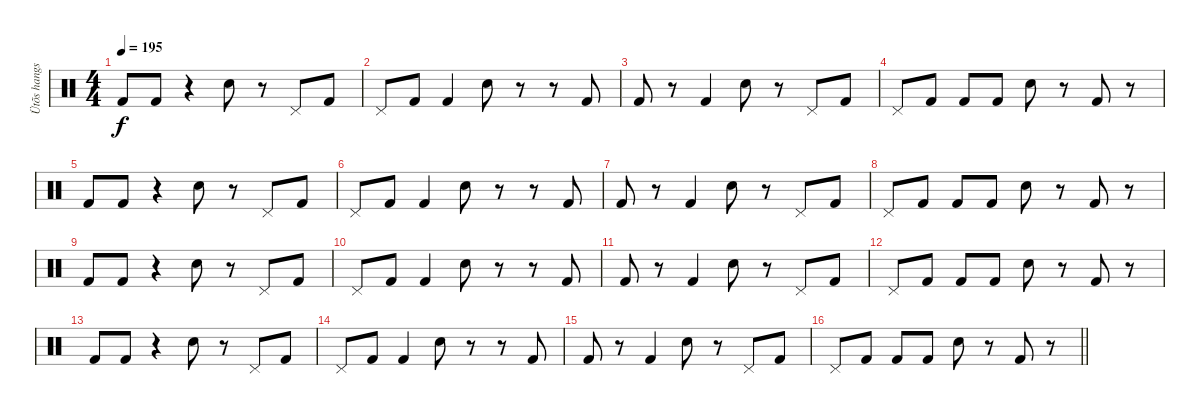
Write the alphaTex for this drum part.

\track ("Ütõs hangszer" "Ütõs hangs") {instrument percussion}
\staff {score}
\articulation defaults
\ts (4 4)
\tempo 195
\clef neutral
\ks c "Kick (hit) 2".8{dy f} "Kick (hit) 2".8
r.4 "Electric Snare (hit)".8 r.8 "Pedal Hi-Hat (hit)".8 "Kick (hit) 2".8 |
"Pedal Hi-Hat (hit)".8 "Kick (hit) 2".8 "Kick (hit) 2".4 "Electric Snare (hit)".8 r.8 r.8 "Kick (hit) 2".8 |
"Kick (hit) 2".8 r.8 "Kick (hit) 2".4 "Electric Snare (hit)".8 r.8 "Pedal Hi-Hat (hit)".8 "Kick (hit) 2".8 |
"Pedal Hi-Hat (hit)".8 "Kick (hit) 2".8 "Kick (hit) 2".8 "Kick (hit) 2".8 "Electric Snare (hit)".8 r.8 "Kick (hit) 2".8 r.8 |
"Kick (hit) 2".8 "Kick (hit) 2".8 r.4 "Electric Snare (hit)".8 r.8 "Pedal Hi-Hat (hit)".8 "Kick (hit) 2".8 |
"Pedal Hi-Hat (hit)".8 "Kick (hit) 2".8 "Kick (hit) 2".4 "Electric Snare (hit)".8 r.8 r.8 "Kick (hit) 2".8 |
"Kick (hit) 2".8 r.8 "Kick (hit) 2".4 "Electric Snare (hit)".8 r.8 "Pedal Hi-Hat (hit)".8 "Kick (hit) 2".8 |
"Pedal Hi-Hat (hit)".8 "Kick (hit) 2".8 "Kick (hit) 2".8 "Kick (hit) 2".8 "Electric Snare (hit)".8 r.8 "Kick (hit) 2".8 r.8 |
"Kick (hit) 2".8 "Kick (hit) 2".8 r.4 "Electric Snare (hit)".8 r.8 "Pedal Hi-Hat (hit)".8 "Kick (hit) 2".8 |
"Pedal Hi-Hat (hit)".8 "Kick (hit) 2".8 "Kick (hit) 2".4 "Electric Snare (hit)".8 r.8 r.8 "Kick (hit) 2".8 |
"Kick (hit) 2".8 r.8 "Kick (hit) 2".4 "Electric Snare (hit)".8 r.8 "Pedal Hi-Hat (hit)".8 "Kick (hit) 2".8 |
"Pedal Hi-Hat (hit)".8 "Kick (hit) 2".8 "Kick (hit) 2".8 "Kick (hit) 2".8 "Electric Snare (hit)".8 r.8 "Kick (hit) 2".8 r.8 |
"Kick (hit) 2".8 "Kick (hit) 2".8 r.4 "Electric Snare (hit)".8 r.8 "Pedal Hi-Hat (hit)".8 "Kick (hit) 2".8 |
"Pedal Hi-Hat (hit)".8 "Kick (hit) 2".8 "Kick (hit) 2".4 "Electric Snare (hit)".8 r.8 r.8 "Kick (hit) 2".8 |
"Kick (hit) 2".8 r.8 "Kick (hit) 2".4 "Electric Snare (hit)".8 r.8 "Pedal Hi-Hat (hit)".8 "Kick (hit) 2".8 |
\barLineRight lightlight "Pedal Hi-Hat (hit)".8 "Kick (hit) 2".8 "Kick (hit) 2".8 "Kick (hit) 2".8 "Electric Snare (hit)".8
r.8 "Kick (hit) 2".8 r.8
